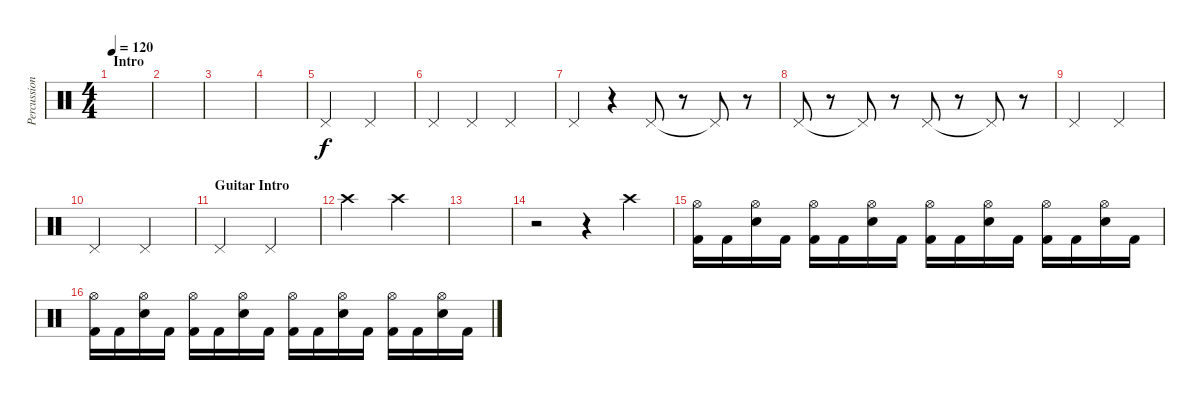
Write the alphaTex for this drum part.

\track ("Percussion" "Percussion") {instrument percussion}
\staff {score}
\articulation defaults
\ts (4 4)
\section ("" "Intro")
\tempo 120
\clef neutral
\ks c
|
|
|
|
"Pedal Hi-Hat (hit)".2 "Pedal Hi-Hat (hit)".2 |
"Pedal Hi-Hat (hit)".4 "Pedal Hi-Hat (hit)".4 "Pedal Hi-Hat (hit)".2 |
"Pedal Hi-Hat (hit)".4 r.4 "Pedal Hi-Hat (hit)".8 r.8 "Pedal Hi-Hat (hit)"{t}.8 r.8 |
"Pedal Hi-Hat (hit)".8 r.8 "Pedal Hi-Hat (hit)"{t}.8 r.8 "Pedal Hi-Hat (hit)".8 r.8 "Pedal Hi-Hat (hit)"{t}.8 r.8 |
"Pedal Hi-Hat (hit)".2 "Pedal Hi-Hat (hit)".2 |
"Pedal Hi-Hat (hit)".2 "Pedal Hi-Hat (hit)".2 |
\section ("" "Guitar Intro")
"Pedal Hi-Hat (hit)".2 "Pedal Hi-Hat (hit)".2 |
"Crash high (hit)".2 "Crash high (hit)".2 |
|
r.2 r.4 "Crash high (hit)".4 |
("Hi-Hat (open)" "Kick (hit) 2").16 "Kick (hit) 2".16 ("Hi-Hat (open)" "Snare (hit) 2").16 "Kick (hit) 2".16 ("Hi-Hat (open)" "Kick (hit) 2").16 "Kick (hit) 2".16 ("Hi-Hat (open)" "Snare (hit) 2").16 "Kick (hit) 2".16 ("Hi-Hat (open)" "Kick (hit) 2").16 "Kick (hit) 2".16 ("Hi-Hat (open)" "Snare (hit) 2").16 "Kick (hit) 2".16 ("Hi-Hat (open)" "Kick (hit) 2").16 "Kick (hit) 2".16 ("Hi-Hat (open)" "Snare (hit) 2").16 "Kick (hit) 2".16 |
("Hi-Hat (open)" "Kick (hit) 2").16 "Kick (hit) 2".16 ("Hi-Hat (open)" "Snare (hit) 2").16 "Kick (hit) 2".16 ("Hi-Hat (open)" "Kick (hit) 2").16 "Kick (hit) 2".16 ("Hi-Hat (open)" "Snare (hit) 2").16 "Kick (hit) 2".16 ("Hi-Hat (open)" "Kick (hit) 2").16 "Kick (hit) 2".16 ("Hi-Hat (open)" "Snare (hit) 2").16 "Kick (hit) 2".16 ("Hi-Hat (open)" "Kick (hit) 2").16 "Kick (hit) 2".16 ("Hi-Hat (open)" "Snare (hit) 2").16 "Kick (hit) 2".16
